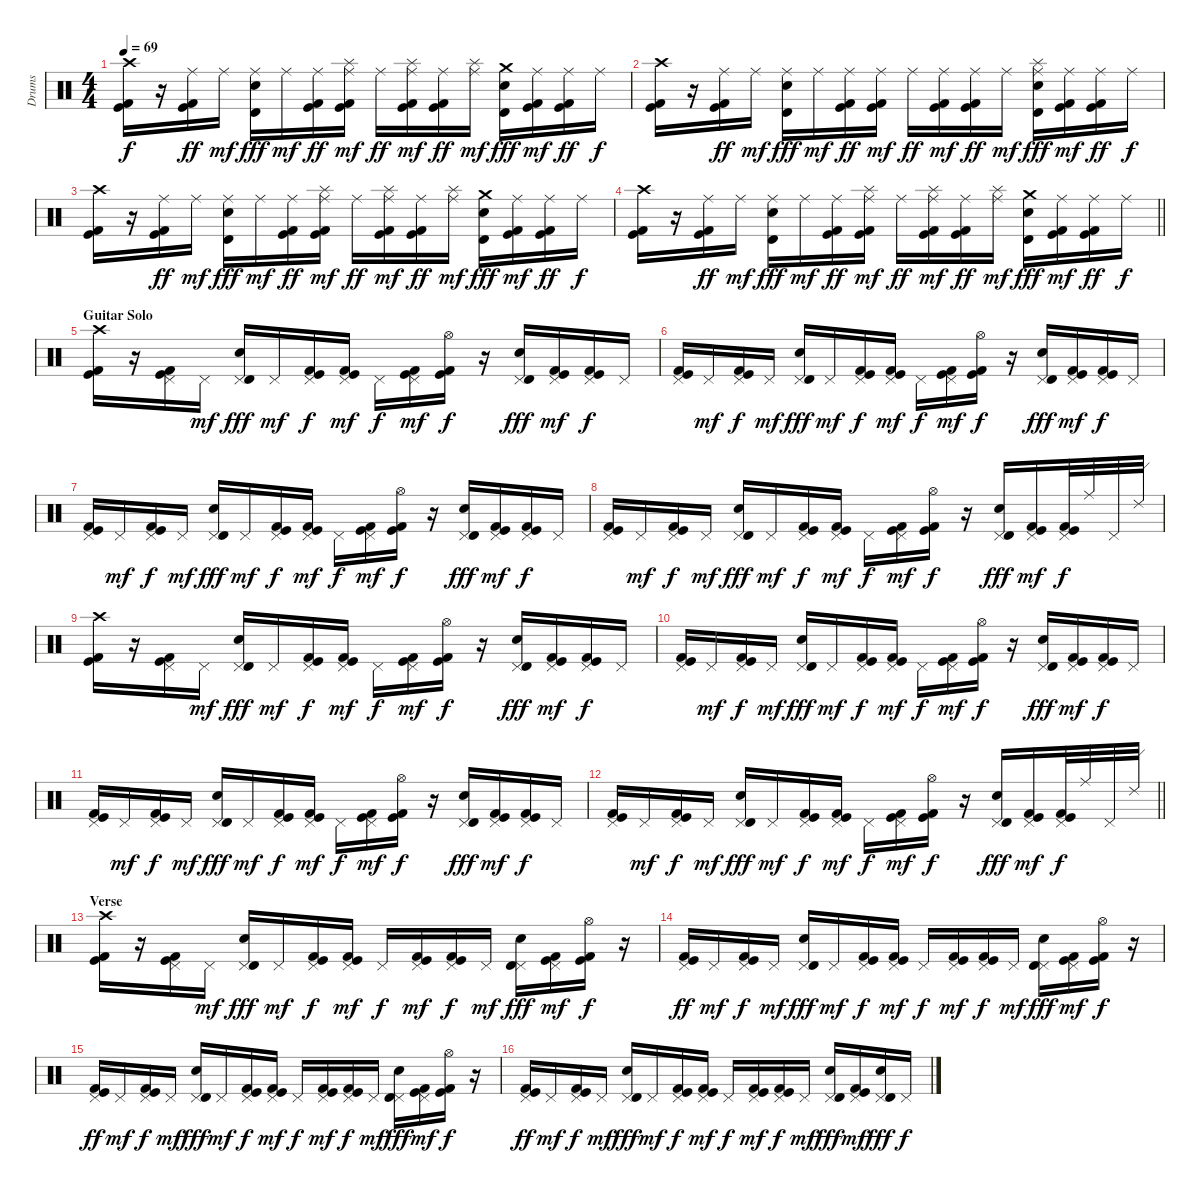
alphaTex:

\track ("Drums" "Drums") {instrument percussion}
\staff {score}
\articulation defaults
\ts (4 4)
\tempo 69
\clef neutral
\ks c
("Crash high (hit)" "Kick (hit) 2" "Kick (hit)").16{dy f} r.16 ("Ride (middle)" "Kick (hit) 2" "Kick (hit)").16{dy ff} "Ride (middle)".16{dy mf} ("Ride (middle)" "Timbale high (hit)" "Electric Snare (hit)").16{dy fff} "Ride (middle)".16{dy mf} ("Ride (middle)" "Kick (hit) 2" "Kick (hit)").16{dy ff} ("Splash (hit)" "Ride (middle)" "Kick (hit) 2" "Kick (hit)").16{dy mf} "Ride (middle)".16{dy ff} ("Splash (hit)" "Ride (middle)" "Kick (hit) 2" "Kick (hit)").16{dy mf} ("Ride (middle)" "Kick (hit) 2" "Kick (hit)").16{dy ff} ("Splash (hit)" "Ride (middle)").16{dy mf} ("Crash medium (hit)" "Timbale high (hit)" "Electric Snare (hit)").16{dy fff} ("Ride (middle)" "Kick (hit) 2" "Kick (hit)").16{dy mf} ("Ride (middle)" "Kick (hit) 2" "Kick (hit)").16{dy ff} "Ride (middle)".16{dy f} |
("Crash high (hit)" "Kick (hit) 2" "Kick (hit)").16 r.16 ("Ride (middle)" "Kick (hit) 2" "Kick (hit)").16{dy ff} "Ride (middle)".16{dy mf} ("Ride (middle)" "Timbale high (hit)" "Electric Snare (hit)").16{dy fff} "Ride (middle)".16{dy mf} ("Ride (middle)" "Kick (hit) 2" "Kick (hit)").16{dy ff} ("Ride (middle)" "Kick (hit) 2" "Kick (hit)").16{dy mf} "Ride (middle)".16{dy ff} ("Ride (middle)" "Kick (hit) 2" "Kick (hit)").16{dy mf} ("Ride (middle)" "Kick (hit) 2" "Kick (hit)").16{dy ff} "Ride (middle)".16{dy mf} ("Splash (hit)" "Ride (middle)" "Timbale high (hit)" "Electric Snare (hit)").16{dy fff} ("Ride (middle)" "Kick (hit) 2" "Kick (hit)").16{dy mf} ("Ride (middle)" "Kick (hit) 2" "Kick (hit)").16{dy ff} "Ride (middle)".16{dy f} |
("Crash high (hit)" "Kick (hit) 2" "Kick (hit)").16 r.16 ("Ride (middle)" "Kick (hit) 2" "Kick (hit)").16{dy ff} "Ride (middle)".16{dy mf} ("Ride (middle)" "Timbale high (hit)" "Electric Snare (hit)").16{dy fff} "Ride (middle)".16{dy mf} ("Ride (middle)" "Kick (hit) 2" "Kick (hit)").16{dy ff} ("Splash (hit)" "Ride (middle)" "Kick (hit) 2" "Kick (hit)").16{dy mf} "Ride (middle)".16{dy ff} ("Splash (hit)" "Ride (middle)" "Kick (hit) 2" "Kick (hit)").16{dy mf} ("Ride (middle)" "Kick (hit) 2" "Kick (hit)").16{dy ff} ("Splash (hit)" "Ride (middle)").16{dy mf} ("Crash medium (hit)" "Timbale high (hit)" "Electric Snare (hit)").16{dy fff} ("Ride (middle)" "Kick (hit) 2" "Kick (hit)").16{dy mf} ("Ride (middle)" "Kick (hit) 2" "Kick (hit)").16{dy ff} "Ride (middle)".16{dy f} |
\barLineRight lightlight
("Crash high (hit)" "Kick (hit) 2" "Kick (hit)").16 r.16 ("Ride (middle)" "Kick (hit) 2" "Kick (hit)").16{dy ff} "Ride (middle)".16{dy mf} ("Ride (middle)" "Timbale high (hit)" "Electric Snare (hit)").16{dy fff} "Ride (middle)".16{dy mf} ("Ride (middle)" "Kick (hit) 2" "Kick (hit)").16{dy ff} ("Splash (hit)" "Ride (middle)" "Kick (hit) 2" "Kick (hit)").16{dy mf} "Ride (middle)".16{dy ff} ("Splash (hit)" "Ride (middle)" "Kick (hit) 2" "Kick (hit)").16{dy mf} ("Ride (middle)" "Kick (hit) 2" "Kick (hit)").16{dy ff} ("Splash (hit)" "Ride (middle)").16{dy mf} ("Crash medium (hit)" "Timbale high (hit)" "Electric Snare (hit)").16{dy fff} ("Ride (middle)" "Kick (hit) 2" "Kick (hit)").16{dy mf} ("Ride (middle)" "Kick (hit) 2" "Kick (hit)").16{dy ff} "Ride (middle)".16{dy f} |
\section ("" "Guitar Solo")
("Crash high (hit)" "Kick (hit) 2" "Kick (hit)").16 r.16 ("Pedal Hi-Hat (hit)" "Kick (hit) 2" "Kick (hit)").16 "Pedal Hi-Hat (hit)".16{dy mf} ("Pedal Hi-Hat (hit)" "Timbale high (hit)" "Electric Snare (hit)").16{dy fff} "Pedal Hi-Hat (hit)".16{dy mf} ("Pedal Hi-Hat (hit)" "Kick (hit) 2" "Kick (hit)").16{dy f} ("Pedal Hi-Hat (hit)" "Kick (hit) 2" "Kick (hit)").16{dy mf} "Pedal Hi-Hat (hit)".16{dy f} ("Pedal Hi-Hat (hit)" "Kick (hit) 2" "Kick (hit)").16{dy mf} ("Hi-Hat (open)" "Kick (hit) 2" "Kick (hit)").16{dy f} r.16 ("Pedal Hi-Hat (hit)" "Timbale high (hit)" "Electric Snare (hit)").16{dy fff} ("Pedal Hi-Hat (hit)" "Kick (hit) 2" "Kick (hit)").16{dy mf} ("Pedal Hi-Hat (hit)" "Kick (hit) 2" "Kick (hit)").16{dy f} "Pedal Hi-Hat (hit)".16 |
("Pedal Hi-Hat (hit)" "Kick (hit) 2" "Kick (hit)").16 "Pedal Hi-Hat (hit)".16{dy mf} ("Pedal Hi-Hat (hit)" "Kick (hit) 2" "Kick (hit)").16{dy f} "Pedal Hi-Hat (hit)".16{dy mf} ("Pedal Hi-Hat (hit)" "Timbale high (hit)" "Electric Snare (hit)").16{dy fff} "Pedal Hi-Hat (hit)".16{dy mf} ("Pedal Hi-Hat (hit)" "Kick (hit) 2" "Kick (hit)").16{dy f} ("Pedal Hi-Hat (hit)" "Kick (hit) 2" "Kick (hit)").16{dy mf} "Pedal Hi-Hat (hit)".16{dy f} ("Pedal Hi-Hat (hit)" "Kick (hit) 2" "Kick (hit)").16{dy mf} ("Hi-Hat (open)" "Kick (hit) 2" "Kick (hit)").16{dy f} r.16 ("Pedal Hi-Hat (hit)" "Timbale high (hit)" "Electric Snare (hit)").16{dy fff} ("Pedal Hi-Hat (hit)" "Kick (hit) 2" "Kick (hit)").16{dy mf} ("Pedal Hi-Hat (hit)" "Kick (hit) 2" "Kick (hit)").16{dy f} "Pedal Hi-Hat (hit)".16 |
("Pedal Hi-Hat (hit)" "Kick (hit) 2" "Kick (hit)").16 "Pedal Hi-Hat (hit)".16{dy mf} ("Pedal Hi-Hat (hit)" "Kick (hit) 2" "Kick (hit)").16{dy f} "Pedal Hi-Hat (hit)".16{dy mf} ("Pedal Hi-Hat (hit)" "Timbale high (hit)" "Electric Snare (hit)").16{dy fff} "Pedal Hi-Hat (hit)".16{dy mf} ("Pedal Hi-Hat (hit)" "Kick (hit) 2" "Kick (hit)").16{dy f} ("Pedal Hi-Hat (hit)" "Kick (hit) 2" "Kick (hit)").16{dy mf} "Pedal Hi-Hat (hit)".16{dy f} ("Pedal Hi-Hat (hit)" "Kick (hit) 2" "Kick (hit)").16{dy mf} ("Hi-Hat (open)" "Kick (hit) 2" "Kick (hit)").16{dy f} r.16 ("Pedal Hi-Hat (hit)" "Timbale high (hit)" "Electric Snare (hit)").16{dy fff} ("Pedal Hi-Hat (hit)" "Kick (hit) 2" "Kick (hit)").16{dy mf} ("Pedal Hi-Hat (hit)" "Kick (hit) 2" "Kick (hit)").16{dy f} "Pedal Hi-Hat (hit)".16 |
("Pedal Hi-Hat (hit)" "Kick (hit) 2" "Kick (hit)").16 "Pedal Hi-Hat (hit)".16{dy mf} ("Pedal Hi-Hat (hit)" "Kick (hit) 2" "Kick (hit)").16{dy f} "Pedal Hi-Hat (hit)".16{dy mf} ("Pedal Hi-Hat (hit)" "Timbale high (hit)" "Electric Snare (hit)").16{dy fff} "Pedal Hi-Hat (hit)".16{dy mf} ("Pedal Hi-Hat (hit)" "Kick (hit) 2" "Kick (hit)").16{dy f} ("Pedal Hi-Hat (hit)" "Kick (hit) 2" "Kick (hit)").16{dy mf} "Pedal Hi-Hat (hit)".16{dy f} ("Pedal Hi-Hat (hit)" "Kick (hit) 2" "Kick (hit)").16{dy mf} ("Hi-Hat (open)" "Kick (hit) 2" "Kick (hit)").16{dy f} r.16 ("Pedal Hi-Hat (hit)" "Timbale high (hit)" "Electric Snare (hit)").16{dy fff} ("Pedal Hi-Hat (hit)" "Kick (hit) 2" "Kick (hit)").16{dy mf} ("Pedal Hi-Hat (hit)" "Kick (hit) 2" "Kick (hit)").32{dy f} "Ride (middle)".32 "Pedal Hi-Hat (hit)".32 "Ride (edge) 2".32 |
("Crash high (hit)" "Kick (hit) 2" "Kick (hit)").16 r.16 ("Pedal Hi-Hat (hit)" "Kick (hit) 2" "Kick (hit)").16 "Pedal Hi-Hat (hit)".16{dy mf} ("Pedal Hi-Hat (hit)" "Timbale high (hit)" "Electric Snare (hit)").16{dy fff} "Pedal Hi-Hat (hit)".16{dy mf} ("Pedal Hi-Hat (hit)" "Kick (hit) 2" "Kick (hit)").16{dy f} ("Pedal Hi-Hat (hit)" "Kick (hit) 2" "Kick (hit)").16{dy mf} "Pedal Hi-Hat (hit)".16{dy f} ("Pedal Hi-Hat (hit)" "Kick (hit) 2" "Kick (hit)").16{dy mf} ("Hi-Hat (open)" "Kick (hit) 2" "Kick (hit)").16{dy f} r.16 ("Pedal Hi-Hat (hit)" "Timbale high (hit)" "Electric Snare (hit)").16{dy fff} ("Pedal Hi-Hat (hit)" "Kick (hit) 2" "Kick (hit)").16{dy mf} ("Pedal Hi-Hat (hit)" "Kick (hit) 2" "Kick (hit)").16{dy f} "Pedal Hi-Hat (hit)".16 |
("Pedal Hi-Hat (hit)" "Kick (hit) 2" "Kick (hit)").16 "Pedal Hi-Hat (hit)".16{dy mf} ("Pedal Hi-Hat (hit)" "Kick (hit) 2" "Kick (hit)").16{dy f} "Pedal Hi-Hat (hit)".16{dy mf} ("Pedal Hi-Hat (hit)" "Timbale high (hit)" "Electric Snare (hit)").16{dy fff} "Pedal Hi-Hat (hit)".16{dy mf} ("Pedal Hi-Hat (hit)" "Kick (hit) 2" "Kick (hit)").16{dy f} ("Pedal Hi-Hat (hit)" "Kick (hit) 2" "Kick (hit)").16{dy mf} "Pedal Hi-Hat (hit)".16{dy f} ("Pedal Hi-Hat (hit)" "Kick (hit) 2" "Kick (hit)").16{dy mf} ("Hi-Hat (open)" "Kick (hit) 2" "Kick (hit)").16{dy f} r.16 ("Pedal Hi-Hat (hit)" "Timbale high (hit)" "Electric Snare (hit)").16{dy fff} ("Pedal Hi-Hat (hit)" "Kick (hit) 2" "Kick (hit)").16{dy mf} ("Pedal Hi-Hat (hit)" "Kick (hit) 2" "Kick (hit)").16{dy f} "Pedal Hi-Hat (hit)".16 |
("Pedal Hi-Hat (hit)" "Kick (hit) 2" "Kick (hit)").16 "Pedal Hi-Hat (hit)".16{dy mf} ("Pedal Hi-Hat (hit)" "Kick (hit) 2" "Kick (hit)").16{dy f} "Pedal Hi-Hat (hit)".16{dy mf} ("Pedal Hi-Hat (hit)" "Timbale high (hit)" "Electric Snare (hit)").16{dy fff} "Pedal Hi-Hat (hit)".16{dy mf} ("Pedal Hi-Hat (hit)" "Kick (hit) 2" "Kick (hit)").16{dy f} ("Pedal Hi-Hat (hit)" "Kick (hit) 2" "Kick (hit)").16{dy mf} "Pedal Hi-Hat (hit)".16{dy f} ("Pedal Hi-Hat (hit)" "Kick (hit) 2" "Kick (hit)").16{dy mf} ("Hi-Hat (open)" "Kick (hit) 2" "Kick (hit)").16{dy f} r.16 ("Pedal Hi-Hat (hit)" "Timbale high (hit)" "Electric Snare (hit)").16{dy fff} ("Pedal Hi-Hat (hit)" "Kick (hit) 2" "Kick (hit)").16{dy mf} ("Pedal Hi-Hat (hit)" "Kick (hit) 2" "Kick (hit)").16{dy f} "Pedal Hi-Hat (hit)".16 |
\barLineRight lightlight
("Pedal Hi-Hat (hit)" "Kick (hit) 2" "Kick (hit)").16 "Pedal Hi-Hat (hit)".16{dy mf} ("Pedal Hi-Hat (hit)" "Kick (hit) 2" "Kick (hit)").16{dy f} "Pedal Hi-Hat (hit)".16{dy mf} ("Pedal Hi-Hat (hit)" "Timbale high (hit)" "Electric Snare (hit)").16{dy fff} "Pedal Hi-Hat (hit)".16{dy mf} ("Pedal Hi-Hat (hit)" "Kick (hit) 2" "Kick (hit)").16{dy f} ("Pedal Hi-Hat (hit)" "Kick (hit) 2" "Kick (hit)").16{dy mf} "Pedal Hi-Hat (hit)".16{dy f} ("Pedal Hi-Hat (hit)" "Kick (hit) 2" "Kick (hit)").16{dy mf} ("Hi-Hat (open)" "Kick (hit) 2" "Kick (hit)").16{dy f} r.16 ("Pedal Hi-Hat (hit)" "Timbale high (hit)" "Electric Snare (hit)").16{dy fff} ("Pedal Hi-Hat (hit)" "Kick (hit) 2" "Kick (hit)").16{dy mf} ("Pedal Hi-Hat (hit)" "Kick (hit) 2" "Kick (hit)").32{dy f} "Ride (middle)".32 "Pedal Hi-Hat (hit)".32 "Ride (edge) 2".32 |
\section ("" "Verse")
("Crash high (hit)" "Kick (hit) 2" "Kick (hit)").16 r.16 ("Pedal Hi-Hat (hit)" "Kick (hit) 2" "Kick (hit)").16 "Pedal Hi-Hat (hit)".16{dy mf} ("Pedal Hi-Hat (hit)" "Timbale high (hit)" "Electric Snare (hit)").16{dy fff} "Pedal Hi-Hat (hit)".16{dy mf} ("Pedal Hi-Hat (hit)" "Kick (hit) 2" "Kick (hit)").16{dy f} ("Pedal Hi-Hat (hit)" "Kick (hit) 2" "Kick (hit)").16{dy mf} "Pedal Hi-Hat (hit)".16{dy f} ("Pedal Hi-Hat (hit)" "Kick (hit) 2" "Kick (hit)").16{dy mf} ("Pedal Hi-Hat (hit)" "Kick (hit) 2" "Kick (hit)").16{dy f} "Pedal Hi-Hat (hit)".16{dy mf} ("Pedal Hi-Hat (hit)" "Timbale high (hit)" "Electric Snare (hit)").16{dy fff} ("Pedal Hi-Hat (hit)" "Kick (hit) 2" "Kick (hit)").16{dy mf} ("Hi-Hat (open)" "Kick (hit) 2" "Kick (hit)").16{dy f} r.16 |
("Pedal Hi-Hat (hit)" "Kick (hit) 2" "Kick (hit)").16{dy ff} "Pedal Hi-Hat (hit)".16{dy mf} ("Pedal Hi-Hat (hit)" "Kick (hit) 2" "Kick (hit)").16{dy f} "Pedal Hi-Hat (hit)".16{dy mf} ("Pedal Hi-Hat (hit)" "Timbale high (hit)" "Electric Snare (hit)").16{dy fff} "Pedal Hi-Hat (hit)".16{dy mf} ("Pedal Hi-Hat (hit)" "Kick (hit) 2" "Kick (hit)").16{dy f} ("Pedal Hi-Hat (hit)" "Kick (hit) 2" "Kick (hit)").16{dy mf} "Pedal Hi-Hat (hit)".16{dy f} ("Pedal Hi-Hat (hit)" "Kick (hit) 2" "Kick (hit)").16{dy mf} ("Pedal Hi-Hat (hit)" "Kick (hit) 2" "Kick (hit)").16{dy f} "Pedal Hi-Hat (hit)".16{dy mf} ("Pedal Hi-Hat (hit)" "Timbale high (hit)" "Electric Snare (hit)").16{dy fff} ("Pedal Hi-Hat (hit)" "Kick (hit) 2" "Kick (hit)").16{dy mf} ("Hi-Hat (open)" "Kick (hit) 2" "Kick (hit)").16{dy f} r.16 |
("Pedal Hi-Hat (hit)" "Kick (hit) 2" "Kick (hit)").16{dy ff} "Pedal Hi-Hat (hit)".16{dy mf} ("Pedal Hi-Hat (hit)" "Kick (hit) 2" "Kick (hit)").16{dy f} "Pedal Hi-Hat (hit)".16{dy mf} ("Pedal Hi-Hat (hit)" "Timbale high (hit)" "Electric Snare (hit)").16{dy fff} "Pedal Hi-Hat (hit)".16{dy mf} ("Pedal Hi-Hat (hit)" "Kick (hit) 2" "Kick (hit)").16{dy f} ("Pedal Hi-Hat (hit)" "Kick (hit) 2" "Kick (hit)").16{dy mf} "Pedal Hi-Hat (hit)".16{dy f} ("Pedal Hi-Hat (hit)" "Kick (hit) 2" "Kick (hit)").16{dy mf} ("Pedal Hi-Hat (hit)" "Kick (hit) 2" "Kick (hit)").16{dy f} "Pedal Hi-Hat (hit)".16{dy mf} ("Pedal Hi-Hat (hit)" "Timbale high (hit)" "Electric Snare (hit)").16{dy fff} ("Pedal Hi-Hat (hit)" "Kick (hit) 2" "Kick (hit)").16{dy mf} ("Hi-Hat (open)" "Kick (hit) 2" "Kick (hit)").16{dy f} r.16 |
("Pedal Hi-Hat (hit)" "Kick (hit) 2" "Kick (hit)").16{dy ff} "Pedal Hi-Hat (hit)".16{dy mf} ("Pedal Hi-Hat (hit)" "Kick (hit) 2" "Kick (hit)").16{dy f} "Pedal Hi-Hat (hit)".16{dy mf} ("Pedal Hi-Hat (hit)" "Timbale high (hit)" "Electric Snare (hit)").16{dy fff} "Pedal Hi-Hat (hit)".16{dy mf} ("Pedal Hi-Hat (hit)" "Kick (hit) 2" "Kick (hit)").16{dy f} ("Pedal Hi-Hat (hit)" "Kick (hit) 2" "Kick (hit)").16{dy mf} "Pedal Hi-Hat (hit)".16{dy f} ("Pedal Hi-Hat (hit)" "Kick (hit) 2" "Kick (hit)").16{dy mf} ("Pedal Hi-Hat (hit)" "Kick (hit) 2" "Kick (hit)").16{dy f} "Pedal Hi-Hat (hit)".16{dy mf} ("Pedal Hi-Hat (hit)" "Timbale high (hit)" "Electric Snare (hit)").16{dy fff} ("Pedal Hi-Hat (hit)" "Kick (hit) 2" "Kick (hit)").16{dy mf} ("Pedal Hi-Hat (hit)" "Timbale high (hit)" "Electric Snare (hit)").16{dy fff} "Pedal Hi-Hat (hit)".16{dy f}
